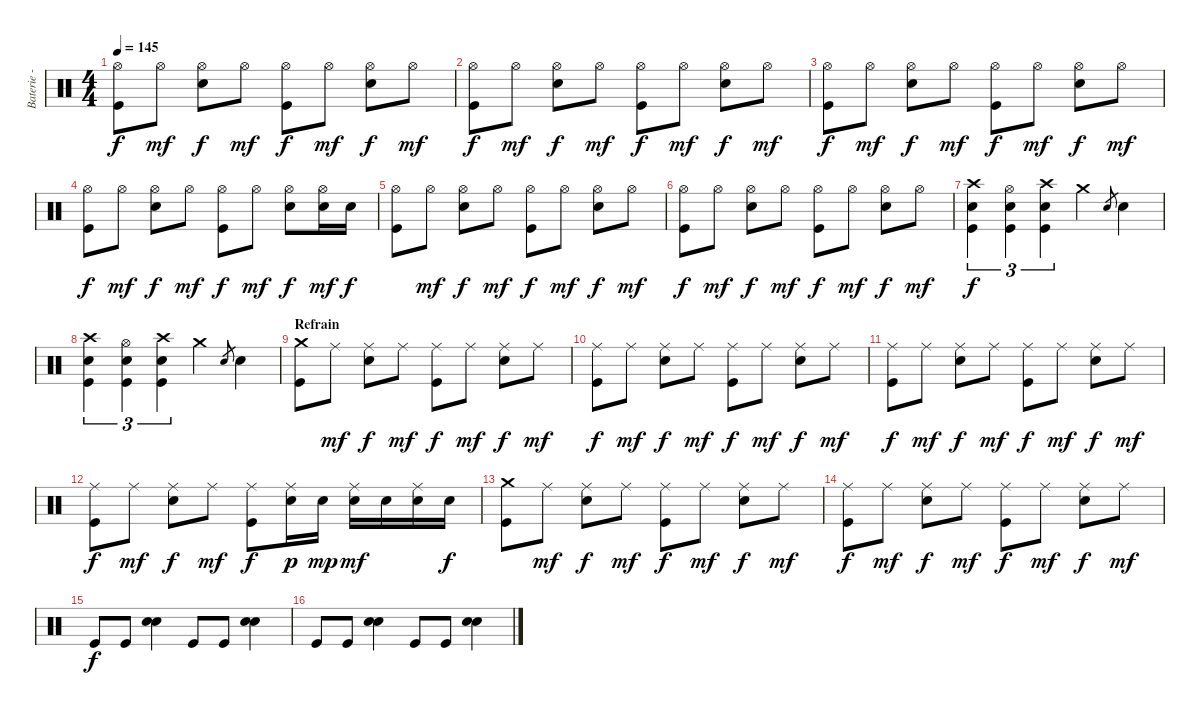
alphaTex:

\track ("Baterie - Alex" "Baterie - ") {instrument percussion}
\staff {score}
\articulation defaults
\ts (4 4)
\tempo 145
\clef neutral
\ks c
("Hi-Hat (open)" "Kick (hit)").8{dy f} "Hi-Hat (open)".8{dy mf} ("Hi-Hat (open)" "Electric Snare (hit)").8{dy f} "Hi-Hat (open)".8{dy mf} ("Hi-Hat (open)" "Kick (hit)").8{dy f} "Hi-Hat (open)".8{dy mf} ("Hi-Hat (open)" "Electric Snare (hit)").8{dy f} "Hi-Hat (open)".8{dy mf} |
("Hi-Hat (open)" "Kick (hit)").8{dy f} "Hi-Hat (open)".8{dy mf} ("Hi-Hat (open)" "Electric Snare (hit)").8{dy f} "Hi-Hat (open)".8{dy mf} ("Hi-Hat (open)" "Kick (hit)").8{dy f} "Hi-Hat (open)".8{dy mf} ("Hi-Hat (open)" "Electric Snare (hit)").8{dy f} "Hi-Hat (open)".8{dy mf} |
("Hi-Hat (open)" "Kick (hit)").8{dy f} "Hi-Hat (open)".8{dy mf} ("Hi-Hat (open)" "Electric Snare (hit)").8{dy f} "Hi-Hat (open)".8{dy mf} ("Hi-Hat (open)" "Kick (hit)").8{dy f} "Hi-Hat (open)".8{dy mf} ("Hi-Hat (open)" "Electric Snare (hit)").8{dy f} "Hi-Hat (open)".8{dy mf} |
("Hi-Hat (open)" "Kick (hit)").8{dy f} "Hi-Hat (open)".8{dy mf} ("Hi-Hat (open)" "Electric Snare (hit)").8{dy f} "Hi-Hat (open)".8{dy mf} ("Hi-Hat (open)" "Kick (hit)").8{dy f} "Hi-Hat (open)".8{dy mf} ("Hi-Hat (open)" "Electric Snare (hit)").8{dy f} ("Hi-Hat (open)" "Electric Snare (hit)").16{dy mf} "Electric Snare (hit)".16{dy f} |
("Hi-Hat (open)" "Kick (hit)").8 "Hi-Hat (open)".8{dy mf} ("Hi-Hat (open)" "Electric Snare (hit)").8{dy f} "Hi-Hat (open)".8{dy mf} ("Hi-Hat (open)" "Kick (hit)").8{dy f} "Hi-Hat (open)".8{dy mf} ("Hi-Hat (open)" "Electric Snare (hit)").8{dy f} "Hi-Hat (open)".8{dy mf} |
("Hi-Hat (open)" "Kick (hit)").8{dy f} "Hi-Hat (open)".8{dy mf} ("Hi-Hat (open)" "Electric Snare (hit)").8{dy f} "Hi-Hat (open)".8{dy mf} ("Hi-Hat (open)" "Kick (hit)").8{dy f} "Hi-Hat (open)".8{dy mf} ("Hi-Hat (open)" "Electric Snare (hit)").8{dy f} "Hi-Hat (open)".8{dy mf} |
("Crash high (hit)" "Electric Snare (hit)" "Kick (hit)").4{tu (3 2) dy f} ("Hi-Hat (open)" "Electric Snare (hit)" "Kick (hit)").4{tu (3 2)} ("Crash high (hit)" "Electric Snare (hit)" "Kick (hit)").4{tu (3 2)} "Crash medium (hit)".4 "Electric Snare (hit)".8{gr} "Electric Snare (hit)".4 |
("Crash high (hit)" "Electric Snare (hit)" "Kick (hit)").4{tu (3 2)} ("Hi-Hat (open)" "Electric Snare (hit)" "Kick (hit)").4{tu (3 2)} ("Crash high (hit)" "Electric Snare (hit)" "Kick (hit)").4{tu (3 2)} "Crash medium (hit)".4 "Electric Snare (hit)".8{gr} "Electric Snare (hit)".4 |
\section ("" "Refrain")
("Crash medium (hit)" "Kick (hit)").8 "Ride (middle)".8{dy mf} ("Ride (middle)" "Electric Snare (hit)").8{dy f} "Ride (middle)".8{dy mf} ("Ride (middle)" "Kick (hit)").8{dy f} "Ride (middle)".8{dy mf} ("Ride (middle)" "Electric Snare (hit)").8{dy f} "Ride (middle)".8{dy mf} |
("Ride (middle)" "Kick (hit)").8{dy f} "Ride (middle)".8{dy mf} ("Ride (middle)" "Electric Snare (hit)").8{dy f} "Ride (middle)".8{dy mf} ("Ride (middle)" "Kick (hit)").8{dy f} "Ride (middle)".8{dy mf} ("Ride (middle)" "Electric Snare (hit)").8{dy f} "Ride (middle)".8{dy mf} |
("Ride (middle)" "Kick (hit)").8{dy f} "Ride (middle)".8{dy mf} ("Ride (middle)" "Electric Snare (hit)").8{dy f} "Ride (middle)".8{dy mf} ("Ride (middle)" "Kick (hit)").8{dy f} "Ride (middle)".8{dy mf} ("Ride (middle)" "Electric Snare (hit)").8{dy f} "Ride (middle)".8{dy mf} |
("Ride (middle)" "Kick (hit)").8{dy f} "Ride (middle)".8{dy mf} ("Ride (middle)" "Electric Snare (hit)").8{dy f} "Ride (middle)".8{dy mf} ("Ride (middle)" "Kick (hit)").8{dy f} ("Ride (middle)" "Electric Snare (hit)").16{dy p} "Electric Snare (hit)".16{dy mp} ("Ride (middle)" "Electric Snare (hit)").16{dy mf} "Electric Snare (hit)".16 ("Ride (middle)" "Electric Snare (hit)").16 "Electric Snare (hit)".16{dy f} |
("Crash medium (hit)" "Kick (hit)").8 "Ride (middle)".8{dy mf} ("Ride (middle)" "Electric Snare (hit)").8{dy f} "Ride (middle)".8{dy mf} ("Ride (middle)" "Kick (hit)").8{dy f} "Ride (middle)".8{dy mf} ("Ride (middle)" "Electric Snare (hit)").8{dy f} "Ride (middle)".8{dy mf} |
("Ride (middle)" "Kick (hit)").8{dy f} "Ride (middle)".8{dy mf} ("Ride (middle)" "Electric Snare (hit)").8{dy f} "Ride (middle)".8{dy mf} ("Ride (middle)" "Kick (hit)").8{dy f} "Ride (middle)".8{dy mf} ("Ride (middle)" "Electric Snare (hit)").8{dy f} "Ride (middle)".8{dy mf} |
"Kick (hit)".8{dy f} "Kick (hit)".8 ("Snare (hit) 2" "Electric Snare (hit)").4 "Kick (hit)".8 "Kick (hit)".8 ("Snare (hit) 2" "Electric Snare (hit)").4 |
"Kick (hit)".8 "Kick (hit)".8 ("Snare (hit) 2" "Electric Snare (hit)").4 "Kick (hit)".8 "Kick (hit)".8 ("Snare (hit) 2" "Electric Snare (hit)").4
